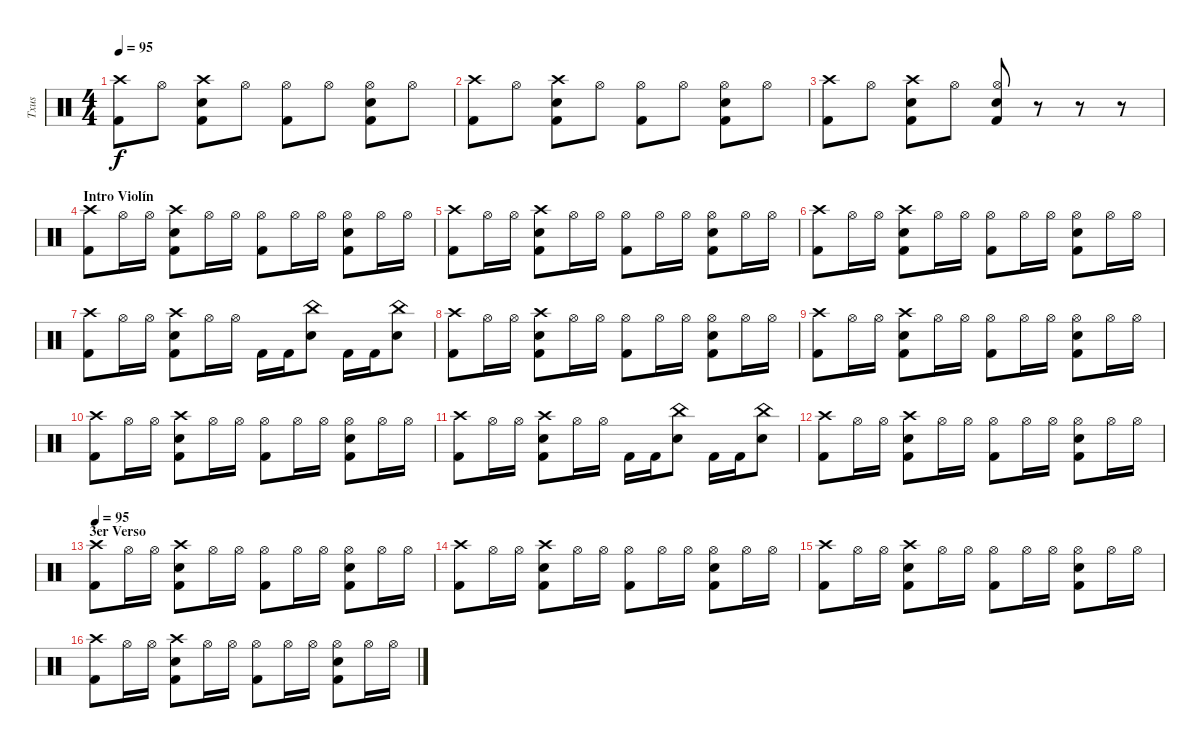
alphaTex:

\track ("Txus" "Txus") {instrument percussion}
\staff {score}
\articulation defaults
\ts (4 4)
\tempo 95
\clef neutral
\ks c
("Kick (hit) 2" "Crash high (hit)").8{dy f} "Hi-Hat (open)".8 ("Kick (hit) 2" "Crash high (hit)" "Snare (hit) 2").8 "Hi-Hat (open)".8 ("Kick (hit) 2" "Hi-Hat (open)").8 "Hi-Hat (open)".8 ("Kick (hit) 2" "Hi-Hat (open)" "Snare (hit) 2").8 "Hi-Hat (open)".8 |
("Kick (hit) 2" "Crash high (hit)").8 "Hi-Hat (open)".8 ("Kick (hit) 2" "Crash high (hit)" "Snare (hit) 2").8 "Hi-Hat (open)".8 ("Kick (hit) 2" "Hi-Hat (open)").8 "Hi-Hat (open)".8 ("Kick (hit) 2" "Hi-Hat (open)" "Snare (hit) 2").8 "Hi-Hat (open)".8 |
("Kick (hit) 2" "Crash high (hit)").8 "Hi-Hat (open)".8 ("Kick (hit) 2" "Crash high (hit)" "Snare (hit) 2").8 "Hi-Hat (open)".8 ("Kick (hit) 2" "Hi-Hat (open)" "Snare (hit) 2").8 r.8 r.8 r.8 |
\section ("" "Intro Violín")
("Kick (hit) 2" "Crash high (hit)").8 "Hi-Hat (open)".16 "Hi-Hat (open)".16 ("Kick (hit) 2" "Crash high (hit)" "Snare (hit) 2").8 "Hi-Hat (open)".16 "Hi-Hat (open)".16 ("Kick (hit) 2" "Hi-Hat (open)").8 "Hi-Hat (open)".16 "Hi-Hat (open)".16 ("Kick (hit) 2" "Hi-Hat (open)" "Snare (hit) 2").8 "Hi-Hat (open)".16 "Hi-Hat (open)".16 |
("Kick (hit) 2" "Crash high (hit)").8 "Hi-Hat (open)".16 "Hi-Hat (open)".16 ("Kick (hit) 2" "Crash high (hit)" "Snare (hit) 2").8 "Hi-Hat (open)".16 "Hi-Hat (open)".16 ("Kick (hit) 2" "Hi-Hat (open)").8 "Hi-Hat (open)".16 "Hi-Hat (open)".16 ("Kick (hit) 2" "Hi-Hat (open)" "Snare (hit) 2").8 "Hi-Hat (open)".16 "Hi-Hat (open)".16 |
("Kick (hit) 2" "Crash high (hit)").8 "Hi-Hat (open)".16 "Hi-Hat (open)".16 ("Kick (hit) 2" "Crash high (hit)" "Snare (hit) 2").8 "Hi-Hat (open)".16 "Hi-Hat (open)".16 ("Kick (hit) 2" "Hi-Hat (open)").8 "Hi-Hat (open)".16 "Hi-Hat (open)".16 ("Kick (hit) 2" "Hi-Hat (open)" "Snare (hit) 2").8 "Hi-Hat (open)".16 "Hi-Hat (open)".16 |
("Kick (hit) 2" "Crash high (hit)").8 "Hi-Hat (open)".16 "Hi-Hat (open)".16 ("Kick (hit) 2" "Crash high (hit)" "Snare (hit) 2").8 "Hi-Hat (open)".16 "Hi-Hat (open)".16 "Kick (hit) 2".16 "Kick (hit) 2".16 ("China (hit)" "Snare (hit) 2").8 "Kick (hit) 2".16 "Kick (hit) 2".16 ("China (hit)" "Snare (hit) 2").8 |
("Kick (hit) 2" "Crash high (hit)").8 "Hi-Hat (open)".16 "Hi-Hat (open)".16 ("Kick (hit) 2" "Crash high (hit)" "Snare (hit) 2").8 "Hi-Hat (open)".16 "Hi-Hat (open)".16 ("Kick (hit) 2" "Hi-Hat (open)").8 "Hi-Hat (open)".16 "Hi-Hat (open)".16 ("Kick (hit) 2" "Hi-Hat (open)" "Snare (hit) 2").8 "Hi-Hat (open)".16 "Hi-Hat (open)".16 |
("Kick (hit) 2" "Crash high (hit)").8 "Hi-Hat (open)".16 "Hi-Hat (open)".16 ("Kick (hit) 2" "Crash high (hit)" "Snare (hit) 2").8 "Hi-Hat (open)".16 "Hi-Hat (open)".16 ("Kick (hit) 2" "Hi-Hat (open)").8 "Hi-Hat (open)".16 "Hi-Hat (open)".16 ("Kick (hit) 2" "Hi-Hat (open)" "Snare (hit) 2").8 "Hi-Hat (open)".16 "Hi-Hat (open)".16 |
("Kick (hit) 2" "Crash high (hit)").8 "Hi-Hat (open)".16 "Hi-Hat (open)".16 ("Kick (hit) 2" "Crash high (hit)" "Snare (hit) 2").8 "Hi-Hat (open)".16 "Hi-Hat (open)".16 ("Kick (hit) 2" "Hi-Hat (open)").8 "Hi-Hat (open)".16 "Hi-Hat (open)".16 ("Kick (hit) 2" "Hi-Hat (open)" "Snare (hit) 2").8 "Hi-Hat (open)".16 "Hi-Hat (open)".16 |
("Kick (hit) 2" "Crash high (hit)").8 "Hi-Hat (open)".16 "Hi-Hat (open)".16 ("Kick (hit) 2" "Crash high (hit)" "Snare (hit) 2").8 "Hi-Hat (open)".16 "Hi-Hat (open)".16 "Kick (hit) 2".16 "Kick (hit) 2".16 ("China (hit)" "Snare (hit) 2").8 "Kick (hit) 2".16 "Kick (hit) 2".16 ("China (hit)" "Snare (hit) 2").8 |
("Kick (hit) 2" "Crash high (hit)").8 "Hi-Hat (open)".16 "Hi-Hat (open)".16 ("Kick (hit) 2" "Crash high (hit)" "Snare (hit) 2").8 "Hi-Hat (open)".16 "Hi-Hat (open)".16 ("Kick (hit) 2" "Hi-Hat (open)").8 "Hi-Hat (open)".16 "Hi-Hat (open)".16 ("Kick (hit) 2" "Hi-Hat (open)" "Snare (hit) 2").8 "Hi-Hat (open)".16 "Hi-Hat (open)".16 |
\section ("" "3er Verso")
\tempo 95
("Kick (hit) 2" "Crash high (hit)").8 "Hi-Hat (open)".16 "Hi-Hat (open)".16 ("Kick (hit) 2" "Crash high (hit)" "Snare (hit) 2").8 "Hi-Hat (open)".16 "Hi-Hat (open)".16 ("Kick (hit) 2" "Hi-Hat (open)").8 "Hi-Hat (open)".16 "Hi-Hat (open)".16 ("Kick (hit) 2" "Hi-Hat (open)" "Snare (hit) 2").8 "Hi-Hat (open)".16 "Hi-Hat (open)".16 |
("Kick (hit) 2" "Crash high (hit)").8 "Hi-Hat (open)".16 "Hi-Hat (open)".16 ("Kick (hit) 2" "Crash high (hit)" "Snare (hit) 2").8 "Hi-Hat (open)".16 "Hi-Hat (open)".16 ("Kick (hit) 2" "Hi-Hat (open)").8 "Hi-Hat (open)".16 "Hi-Hat (open)".16 ("Kick (hit) 2" "Hi-Hat (open)" "Snare (hit) 2").8 "Hi-Hat (open)".16 "Hi-Hat (open)".16 |
("Kick (hit) 2" "Crash high (hit)").8 "Hi-Hat (open)".16 "Hi-Hat (open)".16 ("Kick (hit) 2" "Crash high (hit)" "Snare (hit) 2").8 "Hi-Hat (open)".16 "Hi-Hat (open)".16 ("Kick (hit) 2" "Hi-Hat (open)").8 "Hi-Hat (open)".16 "Hi-Hat (open)".16 ("Kick (hit) 2" "Hi-Hat (open)" "Snare (hit) 2").8 "Hi-Hat (open)".16 "Hi-Hat (open)".16 |
("Kick (hit) 2" "Crash high (hit)").8 "Hi-Hat (open)".16 "Hi-Hat (open)".16 ("Kick (hit) 2" "Crash high (hit)" "Snare (hit) 2").8 "Hi-Hat (open)".16 "Hi-Hat (open)".16 ("Kick (hit) 2" "Hi-Hat (open)").8 "Hi-Hat (open)".16 "Hi-Hat (open)".16 ("Kick (hit) 2" "Hi-Hat (open)" "Snare (hit) 2").8 "Hi-Hat (open)".16 "Hi-Hat (open)".16
